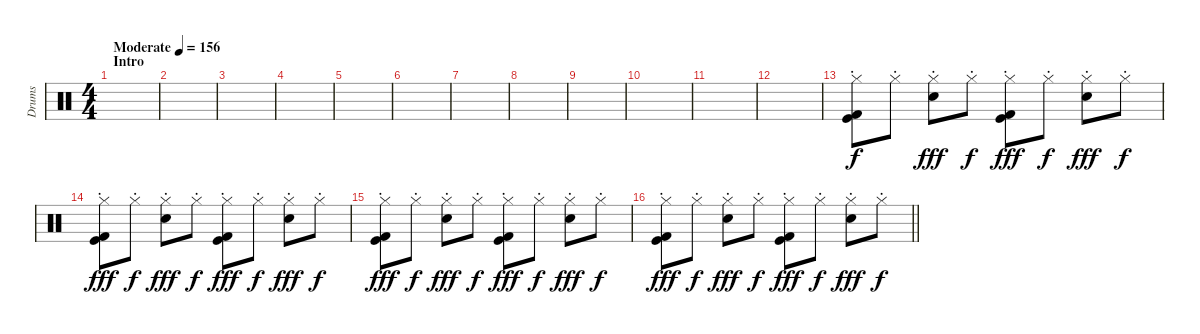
\track ("Drums" "Drums") {instrument percussion}
\staff {score}
\articulation defaults
\ts (4 4)
\section ("" "Intro")
\tempo (156 "Moderate")
\clef neutral
\ks c
|
|
|
|
|
|
|
|
|
|
|
|
("Hi-Hat (closed)"{st} "Kick (hit) 2" "Kick (hit)").8 "Hi-Hat (closed)"{st}.8{dy f} ("Hi-Hat (closed)"{st} "Electric Snare (hit)").8{dy fff} "Hi-Hat (closed)"{st}.8{dy f} ("Hi-Hat (closed)"{st} "Kick (hit) 2" "Kick (hit)").8{dy fff} "Hi-Hat (closed)"{st}.8{dy f} ("Hi-Hat (closed)"{st} "Electric Snare (hit)").8{dy fff} "Hi-Hat (closed)"{st}.8{dy f} |
("Hi-Hat (closed)"{st} "Kick (hit) 2" "Kick (hit)").8{dy fff} "Hi-Hat (closed)"{st}.8{dy f} ("Hi-Hat (closed)"{st} "Electric Snare (hit)").8{dy fff} "Hi-Hat (closed)"{st}.8{dy f} ("Hi-Hat (closed)"{st} "Kick (hit) 2" "Kick (hit)").8{dy fff} "Hi-Hat (closed)"{st}.8{dy f} ("Hi-Hat (closed)"{st} "Electric Snare (hit)").8{dy fff} "Hi-Hat (closed)"{st}.8{dy f} |
("Hi-Hat (closed)"{st} "Kick (hit) 2" "Kick (hit)").8{dy fff} "Hi-Hat (closed)"{st}.8{dy f} ("Hi-Hat (closed)"{st} "Electric Snare (hit)").8{dy fff} "Hi-Hat (closed)"{st}.8{dy f} ("Hi-Hat (closed)"{st} "Kick (hit) 2" "Kick (hit)").8{dy fff} "Hi-Hat (closed)"{st}.8{dy f} ("Hi-Hat (closed)"{st} "Electric Snare (hit)").8{dy fff} "Hi-Hat (closed)"{st}.8{dy f} |
\barLineRight lightlight
("Hi-Hat (closed)"{st} "Kick (hit) 2" "Kick (hit)").8{dy fff} "Hi-Hat (closed)"{st}.8{dy f} ("Hi-Hat (closed)"{st} "Electric Snare (hit)").8{dy fff} "Hi-Hat (closed)"{st}.8{dy f} ("Hi-Hat (closed)"{st} "Kick (hit) 2" "Kick (hit)").8{dy fff} "Hi-Hat (closed)"{st}.8{dy f} ("Hi-Hat (closed)"{st} "Electric Snare (hit)").8{dy fff} "Hi-Hat (closed)"{st}.8{dy f}
